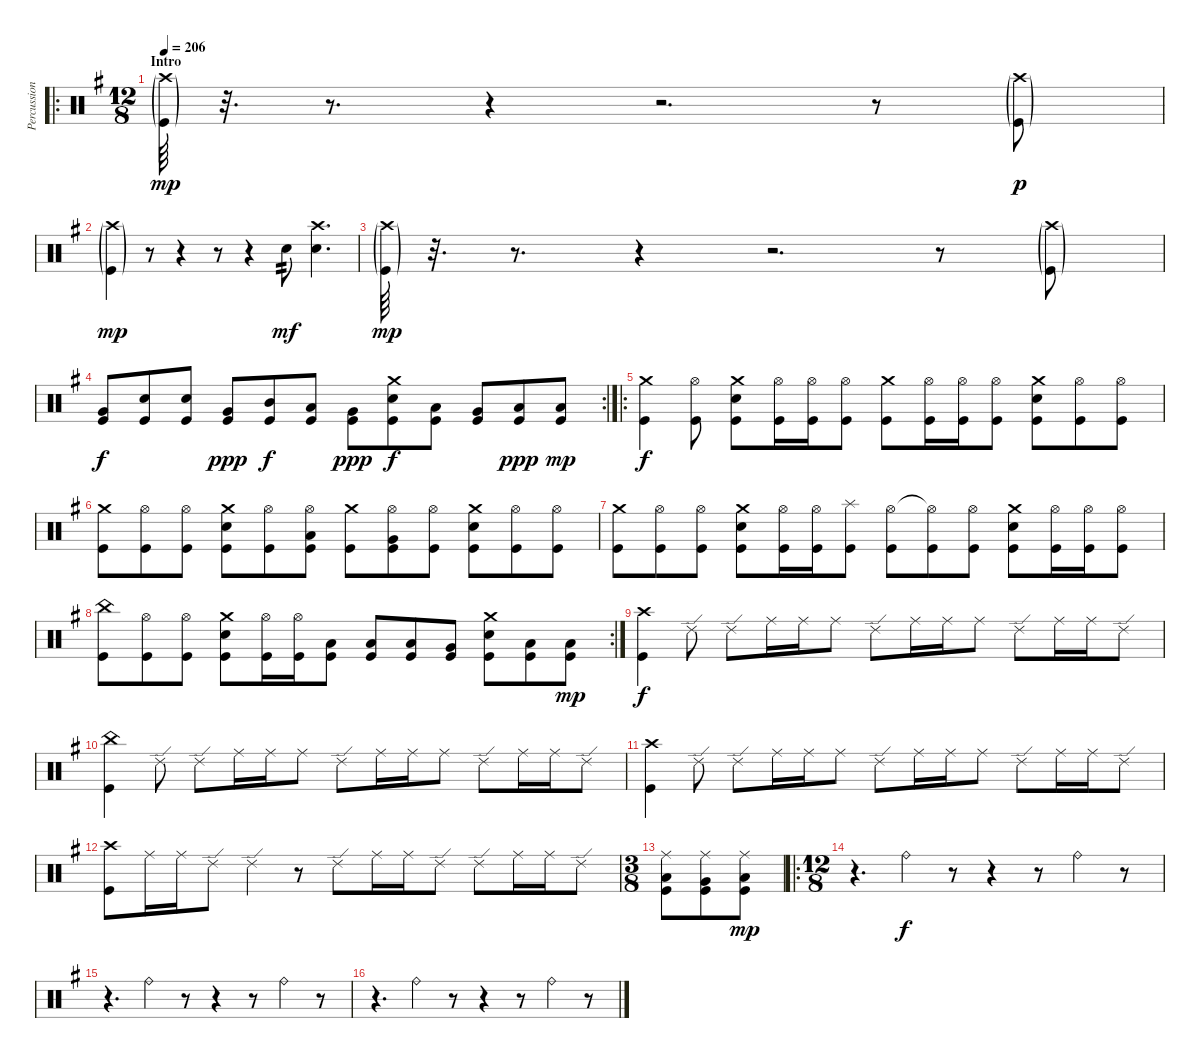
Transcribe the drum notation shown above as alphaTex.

\track ("Percussion" "Percussion") {instrument percussion}
\staff {score}
\articulation defaults
\ro
\ts (12 8)
\section ("" "Intro")
\tempo 206
\clef neutral
\ks g
("Crash high (hit)"{g} "Kick (hit)"{g}).64{dy mp} r.32{d} r.8{d} r.4 r.2{d} r.8 ("Crash high (hit)"{g} "Kick (hit)"{g}).8{dy p} |
("Crash high (hit)"{g} "Kick (hit)"{g}).4{dy mp} r.8 r.4 r.8 r.4 "Electric Snare (hit)".8{tp 2 dy mf} ("Crash high (hit)" "Electric Snare (hit)").4{d} |
("Crash high (hit)"{g} "Kick (hit)"{g}).64{dy mp} r.32{d} r.8{d} r.4 r.2{d} r.8 ("Crash high (hit)"{g} "Kick (hit)"{g}).8 |
\rc 2
("Very Low Tom (hit)" "Kick (hit)").8{dy f} ("Electric Snare (hit)" "Kick (hit)").8 ("Electric Snare (hit)" "Kick (hit)").8 ("Very Low Tom (hit)" "Kick (hit)").8{dy ppp} ("Mid Tom (hit)" "Kick (hit)").8{dy f} ("Low Tom (hit)" "Kick (hit)").8 ("Very Low Tom (hit)" "Kick (hit)").8{dy ppp} ("Electric Snare (hit)" "Crash medium (hit)" "Kick (hit)").8{dy f} ("Low Tom (hit)" "Kick (hit)").8 ("Very Low Tom (hit)" "Kick (hit)").8 ("Low Floor Tom (hit)" "Kick (hit)").8{dy ppp} ("Low Floor Tom (hit)" "Kick (hit)").8{dy mp} |
\ro
("Crash medium (hit)" "Kick (hit)").4{dy f} ("Hi-Hat (open)" "Kick (hit)").8 ("Crash medium (hit)" "Electric Snare (hit)" "Kick (hit)").8 ("Hi-Hat (open)" "Kick (hit)").16 ("Hi-Hat (open)" "Kick (hit)").16 ("Hi-Hat (open)" "Kick (hit)").8 ("Crash medium (hit)" "Kick (hit)").8 ("Hi-Hat (open)" "Kick (hit)").16 ("Hi-Hat (open)" "Kick (hit)").16 ("Hi-Hat (open)" "Kick (hit)").8 ("Crash medium (hit)" "Electric Snare (hit)" "Kick (hit)").8 ("Hi-Hat (open)" "Kick (hit)").8 ("Hi-Hat (open)" "Kick (hit)").8 |
("Crash medium (hit)" "Kick (hit)").8 ("Hi-Hat (open)" "Kick (hit)").8 ("Hi-Hat (open)" "Kick (hit)").8 ("Electric Snare (hit)" "Crash medium (hit)" "Kick (hit)").8 ("Hi-Hat (open)" "Kick (hit)").8 ("Hi-Hat (open)" "Low Tom (hit)" "Kick (hit)").8 ("Crash medium (hit)" "Kick (hit)").8 ("Hi-Hat (open)" "Very Low Tom (hit)" "Kick (hit)").8 ("Hi-Hat (open)" "Kick (hit)").8 ("Electric Snare (hit)" "Crash medium (hit)" "Kick (hit)").8 ("Hi-Hat (open)" "Kick (hit)").8 ("Hi-Hat (open)" "Kick (hit)").8 |
("Crash medium (hit)" "Kick (hit)").8 ("Hi-Hat (open)" "Kick (hit)").8 ("Hi-Hat (open)" "Kick (hit)").8 ("Crash medium (hit)" "Electric Snare (hit)" "Kick (hit)").8 ("Hi-Hat (open)" "Kick (hit)").16 ("Hi-Hat (open)" "Kick (hit)").16 ("Splash (hit)" "Kick (hit)").8 ("Hi-Hat (open)" "Kick (hit)").8 ("Hi-Hat (open)"{t} "Kick (hit)").8 ("Hi-Hat (open)" "Kick (hit)").8 ("Crash medium (hit)" "Electric Snare (hit)" "Kick (hit)").8 ("Hi-Hat (open)" "Kick (hit)").16 ("Hi-Hat (open)" "Kick (hit)").16 ("Hi-Hat (open)" "Kick (hit)").8 |
\rc 2
("China (hit)" "Kick (hit)").8 ("Hi-Hat (open)" "Kick (hit)").8 ("Hi-Hat (open)" "Kick (hit)").8 ("Crash medium (hit)" "Electric Snare (hit)" "Kick (hit)").8 ("Hi-Hat (open)" "Kick (hit)").16 ("Hi-Hat (open)" "Kick (hit)").16 ("Low Tom (hit)" "Kick (hit)").8 ("Low Tom (hit)" "Kick (hit)").8 ("Low Tom (hit)" "Kick (hit)").8 ("Very Low Tom (hit)" "Kick (hit)").8 ("Crash medium (hit)" "Electric Snare (hit)" "Kick (hit)").8 ("Low Floor Tom (hit)" "Kick (hit)").8 ("Low Floor Tom (hit)" "Kick (hit)").8{dy mp} |
("Kick (hit)" "Crash high (hit)").4{dy f} "Ride (edge) 2".8 "Ride (edge) 2".8 "Ride (middle)".16 "Ride (middle)".16 "Ride (middle)".8 "Ride (edge) 2".8 "Ride (middle)".16 "Ride (middle)".16 "Ride (middle)".8 "Ride (edge) 2".8 "Ride (middle)".16 "Ride (middle)".16 "Ride (edge) 2".8 |
("Kick (hit)" "China (hit)").4 "Ride (edge) 2".8 "Ride (edge) 2".8 "Ride (middle)".16 "Ride (middle)".16 "Ride (middle)".8 "Ride (edge) 2".8 "Ride (middle)".16 "Ride (middle)".16 "Ride (middle)".8 "Ride (edge) 2".8 "Ride (middle)".16 "Ride (middle)".16 "Ride (edge) 2".8 |
("Kick (hit)" "Crash high (hit)").4 "Ride (edge) 2".8 "Ride (edge) 2".8 "Ride (middle)".16 "Ride (middle)".16 "Ride (middle)".8 "Ride (edge) 2".8 "Ride (middle)".16 "Ride (middle)".16 "Ride (middle)".8 "Ride (edge) 2".8 "Ride (middle)".16 "Ride (middle)".16 "Ride (edge) 2".8 |
("Kick (hit)" "Crash high (hit)").8 "Ride (middle)".16 "Ride (middle)".16 "Ride (edge) 2".8 "Ride (edge) 2".4 r.8 "Ride (edge) 2".8 "Ride (middle)".16 "Ride (middle)".16 "Ride (edge) 2".8 "Ride (edge) 2".8 "Ride (middle)".16 "Ride (middle)".16 "Ride (edge) 2".8 |
\ts (3 8)
("Ride (middle)" "Low Tom (hit)" "Kick (hit)").8 ("Ride (middle)" "Very Low Tom (hit)" "Kick (hit)").8 ("Ride (middle)" "Low Floor Tom (hit)" "Kick (hit)").8{dy mp} |
\ro
\ts (12 8)
r.4{d} "Ride (bell)".4{dy f} r.8 r.4 r.8 "Ride (bell)".4 r.8 |
r.4{d} "Ride (bell)".4 r.8 r.4 r.8 "Ride (bell)".4 r.8 |
r.4{d} "Ride (bell)".4 r.8 r.4 r.8 "Ride (bell)".4 r.8
